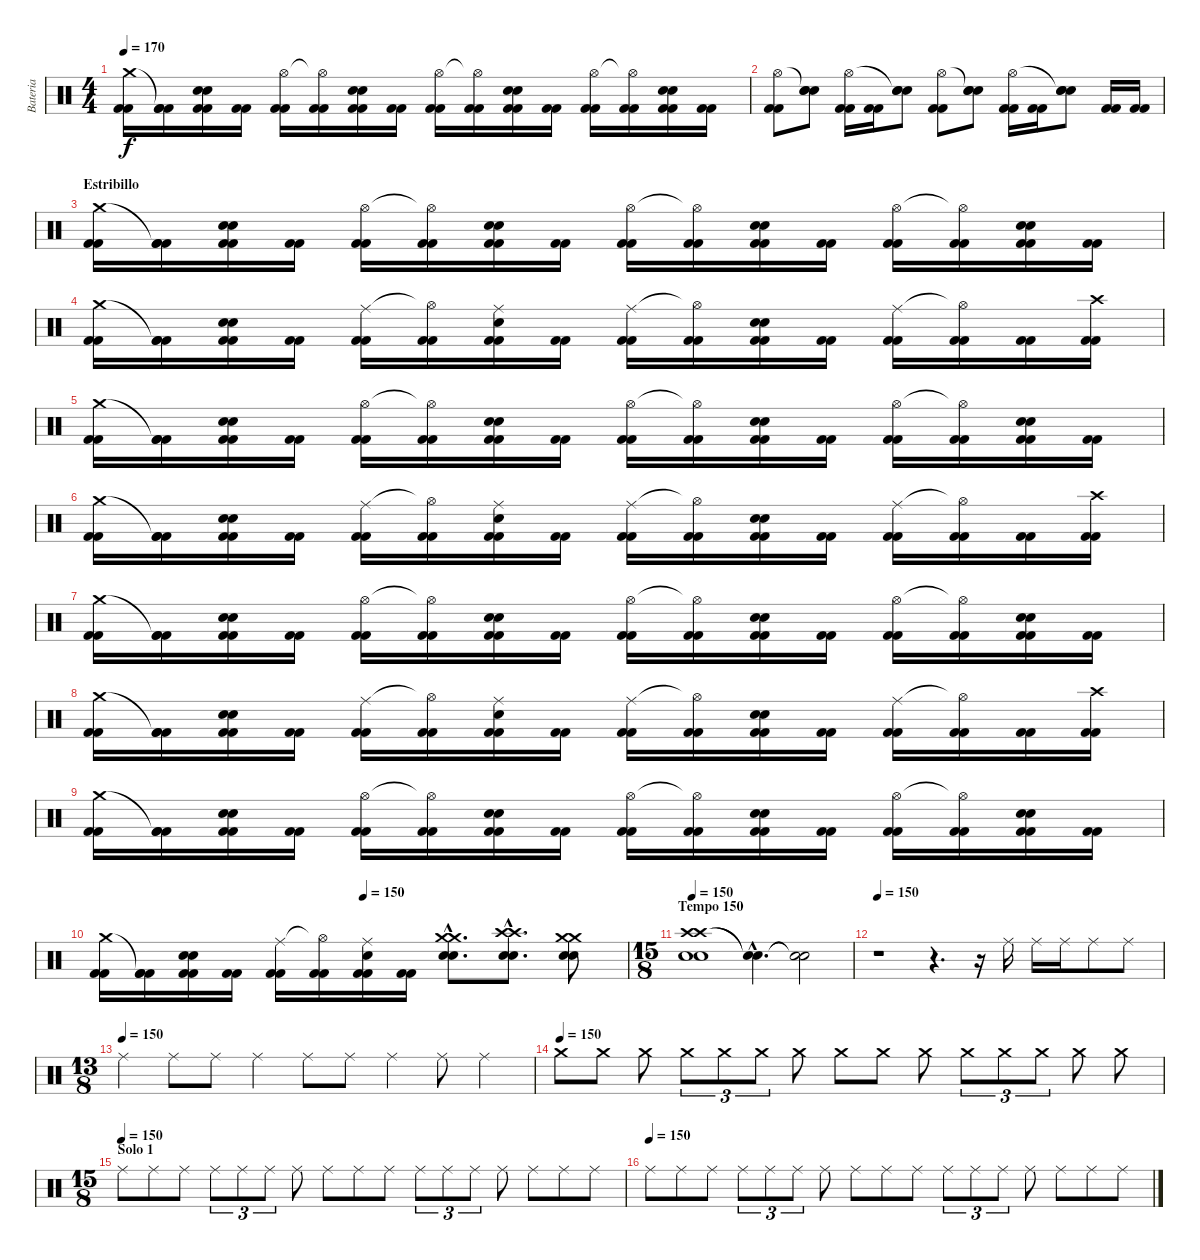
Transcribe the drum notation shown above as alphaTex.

\track ("Bateria" "Bateria") {instrument percussion}
\staff {score}
\articulation defaults
\ts (4 4)
\tempo 170
\clef neutral
\ks c
("Kick (hit) 2" "Kick (hit) 2" "Crash medium (hit)").16{dy f} ("Kick (hit) 2" "Kick (hit) 2" "Kick (hit) 2"{t}).16 ("Kick (hit) 2" "Kick (hit) 2" "Electric Snare (hit)" "Electric Snare (hit)").16 ("Kick (hit) 2" "Kick (hit) 2").16 ("Kick (hit) 2" "Kick (hit) 2" "Hi-Hat (open)").16 ("Kick (hit) 2" "Kick (hit) 2" "Hi-Hat (open)"{t}).16 ("Kick (hit) 2" "Kick (hit) 2" "Electric Snare (hit)" "Electric Snare (hit)").16 ("Kick (hit) 2" "Kick (hit) 2").16 ("Kick (hit) 2" "Kick (hit) 2" "Hi-Hat (open)").16 ("Kick (hit) 2" "Kick (hit) 2" "Hi-Hat (open)"{t}).16 ("Kick (hit) 2" "Kick (hit) 2" "Electric Snare (hit)" "Electric Snare (hit)").16 ("Kick (hit) 2" "Kick (hit) 2").16 ("Kick (hit) 2" "Kick (hit) 2" "Hi-Hat (open)").16 ("Kick (hit) 2" "Kick (hit) 2" "Hi-Hat (open)"{t}).16 ("Kick (hit) 2" "Kick (hit) 2" "Electric Snare (hit)" "Electric Snare (hit)").16 ("Kick (hit) 2" "Kick (hit) 2").16 |
("Kick (hit) 2" "Kick (hit) 2" "Hi-Hat (open)").8 ("Electric Snare (hit)" "Electric Snare (hit)" "Snare (hit)"{t}).8 ("Kick (hit) 2" "Kick (hit) 2" "Hi-Hat (open)").16 ("Kick (hit) 2" "Kick (hit) 2").16 ("Electric Snare (hit)" "Electric Snare (hit)" "Snare (hit)"{t}).8 ("Kick (hit) 2" "Kick (hit) 2" "Hi-Hat (open)").8 ("Electric Snare (hit)" "Electric Snare (hit)" "Snare (hit)"{t}).8 ("Kick (hit) 2" "Kick (hit) 2" "Hi-Hat (open)").16 ("Kick (hit) 2" "Kick (hit) 2").16 ("Electric Snare (hit)" "Electric Snare (hit)" "Snare (hit)"{t}).8 ("Kick (hit) 2" "Kick (hit) 2").16 ("Kick (hit) 2" "Kick (hit) 2").16 |
\section ("" "Estribillo")
("Kick (hit) 2" "Kick (hit) 2" "Crash medium (hit)").16 ("Kick (hit) 2" "Kick (hit) 2" "Kick (hit) 2"{t}).16 ("Kick (hit) 2" "Kick (hit) 2" "Electric Snare (hit)" "Electric Snare (hit)").16 ("Kick (hit) 2" "Kick (hit) 2").16 ("Kick (hit) 2" "Kick (hit) 2" "Hi-Hat (open)").16 ("Kick (hit) 2" "Kick (hit) 2" "Hi-Hat (open)"{t}).16 ("Kick (hit) 2" "Kick (hit) 2" "Electric Snare (hit)" "Electric Snare (hit)").16 ("Kick (hit) 2" "Kick (hit) 2").16 ("Kick (hit) 2" "Kick (hit) 2" "Hi-Hat (open)").16 ("Kick (hit) 2" "Kick (hit) 2" "Hi-Hat (open)"{t}).16 ("Kick (hit) 2" "Kick (hit) 2" "Electric Snare (hit)" "Electric Snare (hit)").16 ("Kick (hit) 2" "Kick (hit) 2").16 ("Kick (hit) 2" "Kick (hit) 2" "Hi-Hat (open)").16 ("Kick (hit) 2" "Kick (hit) 2" "Hi-Hat (open)"{t}).16 ("Kick (hit) 2" "Kick (hit) 2" "Electric Snare (hit)" "Electric Snare (hit)").16 ("Kick (hit) 2" "Kick (hit) 2").16 |
("Kick (hit) 2" "Kick (hit) 2" "Crash medium (hit)").16 ("Kick (hit) 2" "Kick (hit) 2" "Kick (hit) 2"{t}).16 ("Kick (hit) 2" "Kick (hit) 2" "Electric Snare (hit)" "Electric Snare (hit)").16 ("Kick (hit) 2" "Kick (hit) 2").16 ("Kick (hit) 2" "Kick (hit) 2" "Ride (middle)").16 ("Kick (hit) 2" "Kick (hit) 2" "Hi-Hat (open)"{t}).16 ("Kick (hit) 2" "Kick (hit) 2" "Electric Snare (hit)" "Ride (middle)").16 ("Kick (hit) 2" "Kick (hit) 2").16 ("Kick (hit) 2" "Kick (hit) 2" "Ride (middle)").16 ("Kick (hit) 2" "Kick (hit) 2" "Hi-Hat (open)"{t}).16 ("Kick (hit) 2" "Kick (hit) 2" "Electric Snare (hit)" "Electric Snare (hit)").16 ("Kick (hit) 2" "Kick (hit) 2").16 ("Kick (hit) 2" "Kick (hit) 2" "Ride (middle)").16 ("Kick (hit) 2" "Kick (hit) 2" "Hi-Hat (open)"{t}).16 ("Kick (hit) 2" "Kick (hit) 2").16 ("Kick (hit) 2" "Kick (hit) 2" "Crash high (hit)").16 |
("Kick (hit) 2" "Kick (hit) 2" "Crash medium (hit)").16 ("Kick (hit) 2" "Kick (hit) 2" "Kick (hit) 2"{t}).16 ("Kick (hit) 2" "Kick (hit) 2" "Electric Snare (hit)" "Electric Snare (hit)").16 ("Kick (hit) 2" "Kick (hit) 2").16 ("Kick (hit) 2" "Kick (hit) 2" "Hi-Hat (open)").16 ("Kick (hit) 2" "Kick (hit) 2" "Hi-Hat (open)"{t}).16 ("Kick (hit) 2" "Kick (hit) 2" "Electric Snare (hit)" "Electric Snare (hit)").16 ("Kick (hit) 2" "Kick (hit) 2").16 ("Kick (hit) 2" "Kick (hit) 2" "Hi-Hat (open)").16 ("Kick (hit) 2" "Kick (hit) 2" "Hi-Hat (open)"{t}).16 ("Kick (hit) 2" "Kick (hit) 2" "Electric Snare (hit)" "Electric Snare (hit)").16 ("Kick (hit) 2" "Kick (hit) 2").16 ("Kick (hit) 2" "Kick (hit) 2" "Hi-Hat (open)").16 ("Kick (hit) 2" "Kick (hit) 2" "Hi-Hat (open)"{t}).16 ("Kick (hit) 2" "Kick (hit) 2" "Electric Snare (hit)" "Electric Snare (hit)").16 ("Kick (hit) 2" "Kick (hit) 2").16 |
("Kick (hit) 2" "Kick (hit) 2" "Crash medium (hit)").16 ("Kick (hit) 2" "Kick (hit) 2" "Kick (hit) 2"{t}).16 ("Kick (hit) 2" "Kick (hit) 2" "Electric Snare (hit)" "Electric Snare (hit)").16 ("Kick (hit) 2" "Kick (hit) 2").16 ("Kick (hit) 2" "Kick (hit) 2" "Ride (middle)").16 ("Kick (hit) 2" "Kick (hit) 2" "Hi-Hat (open)"{t}).16 ("Kick (hit) 2" "Kick (hit) 2" "Electric Snare (hit)" "Ride (middle)").16 ("Kick (hit) 2" "Kick (hit) 2").16 ("Kick (hit) 2" "Kick (hit) 2" "Ride (middle)").16 ("Kick (hit) 2" "Kick (hit) 2" "Hi-Hat (open)"{t}).16 ("Kick (hit) 2" "Kick (hit) 2" "Electric Snare (hit)" "Electric Snare (hit)").16 ("Kick (hit) 2" "Kick (hit) 2").16 ("Kick (hit) 2" "Kick (hit) 2" "Ride (middle)").16 ("Kick (hit) 2" "Kick (hit) 2" "Hi-Hat (open)"{t}).16 ("Kick (hit) 2" "Kick (hit) 2").16 ("Kick (hit) 2" "Kick (hit) 2" "Crash high (hit)").16 |
("Kick (hit) 2" "Kick (hit) 2" "Crash medium (hit)").16 ("Kick (hit) 2" "Kick (hit) 2" "Kick (hit) 2"{t}).16 ("Kick (hit) 2" "Kick (hit) 2" "Electric Snare (hit)" "Electric Snare (hit)").16 ("Kick (hit) 2" "Kick (hit) 2").16 ("Kick (hit) 2" "Kick (hit) 2" "Hi-Hat (open)").16 ("Kick (hit) 2" "Kick (hit) 2" "Hi-Hat (open)"{t}).16 ("Kick (hit) 2" "Kick (hit) 2" "Electric Snare (hit)" "Electric Snare (hit)").16 ("Kick (hit) 2" "Kick (hit) 2").16 ("Kick (hit) 2" "Kick (hit) 2" "Hi-Hat (open)").16 ("Kick (hit) 2" "Kick (hit) 2" "Hi-Hat (open)"{t}).16 ("Kick (hit) 2" "Kick (hit) 2" "Electric Snare (hit)" "Electric Snare (hit)").16 ("Kick (hit) 2" "Kick (hit) 2").16 ("Kick (hit) 2" "Kick (hit) 2" "Hi-Hat (open)").16 ("Kick (hit) 2" "Kick (hit) 2" "Hi-Hat (open)"{t}).16 ("Kick (hit) 2" "Kick (hit) 2" "Electric Snare (hit)" "Electric Snare (hit)").16 ("Kick (hit) 2" "Kick (hit) 2").16 |
("Kick (hit) 2" "Kick (hit) 2" "Crash medium (hit)").16 ("Kick (hit) 2" "Kick (hit) 2" "Kick (hit) 2"{t}).16 ("Kick (hit) 2" "Kick (hit) 2" "Electric Snare (hit)" "Electric Snare (hit)").16 ("Kick (hit) 2" "Kick (hit) 2").16 ("Kick (hit) 2" "Kick (hit) 2" "Ride (middle)").16 ("Kick (hit) 2" "Kick (hit) 2" "Hi-Hat (open)"{t}).16 ("Kick (hit) 2" "Kick (hit) 2" "Electric Snare (hit)" "Ride (middle)").16 ("Kick (hit) 2" "Kick (hit) 2").16 ("Kick (hit) 2" "Kick (hit) 2" "Ride (middle)").16 ("Kick (hit) 2" "Kick (hit) 2" "Hi-Hat (open)"{t}).16 ("Kick (hit) 2" "Kick (hit) 2" "Electric Snare (hit)" "Electric Snare (hit)").16 ("Kick (hit) 2" "Kick (hit) 2").16 ("Kick (hit) 2" "Kick (hit) 2" "Ride (middle)").16 ("Kick (hit) 2" "Kick (hit) 2" "Hi-Hat (open)"{t}).16 ("Kick (hit) 2" "Kick (hit) 2").16 ("Kick (hit) 2" "Kick (hit) 2" "Crash high (hit)").16 |
("Kick (hit) 2" "Kick (hit) 2" "Crash medium (hit)").16 ("Kick (hit) 2" "Kick (hit) 2" "Kick (hit) 2"{t}).16 ("Kick (hit) 2" "Kick (hit) 2" "Electric Snare (hit)" "Electric Snare (hit)").16 ("Kick (hit) 2" "Kick (hit) 2").16 ("Kick (hit) 2" "Kick (hit) 2" "Hi-Hat (open)").16 ("Kick (hit) 2" "Kick (hit) 2" "Hi-Hat (open)"{t}).16 ("Kick (hit) 2" "Kick (hit) 2" "Electric Snare (hit)" "Electric Snare (hit)").16 ("Kick (hit) 2" "Kick (hit) 2").16 ("Kick (hit) 2" "Kick (hit) 2" "Hi-Hat (open)").16 ("Kick (hit) 2" "Kick (hit) 2" "Hi-Hat (open)"{t}).16 ("Kick (hit) 2" "Kick (hit) 2" "Electric Snare (hit)" "Electric Snare (hit)").16 ("Kick (hit) 2" "Kick (hit) 2").16 ("Kick (hit) 2" "Kick (hit) 2" "Hi-Hat (open)").16 ("Kick (hit) 2" "Kick (hit) 2" "Hi-Hat (open)"{t}).16 ("Kick (hit) 2" "Kick (hit) 2" "Electric Snare (hit)" "Electric Snare (hit)").16 ("Kick (hit) 2" "Kick (hit) 2").16 |
\tempo (150 0.5)
("Kick (hit) 2" "Kick (hit) 2" "Crash medium (hit)").16 ("Kick (hit) 2" "Kick (hit) 2" "Kick (hit) 2"{t}).16 ("Kick (hit) 2" "Kick (hit) 2" "Electric Snare (hit)" "Electric Snare (hit)").16 ("Kick (hit) 2" "Kick (hit) 2").16 ("Kick (hit) 2" "Kick (hit) 2" "Ride (middle)").16 ("Kick (hit) 2" "Kick (hit) 2" "Hi-Hat (open)"{t}).16 ("Kick (hit) 2" "Kick (hit) 2" "Electric Snare (hit)" "Ride (middle)").16 ("Kick (hit) 2" "Kick (hit) 2").16 ("Crash medium (hit)"{hac} "Crash medium (hit)"{hac} "Snare (hit) 2"{hac} "Snare (hit) 2"{hac}).8{d} ("Crash high (hit)"{hac} "Crash high (hit)"{hac} "Snare (hit) 2"{hac} "Snare (hit) 2"{hac}).8{d} ("Crash medium (hit)" "Crash medium (hit)" "Snare (hit) 2" "Snare (hit) 2").8 |
\ts (15 8)
\section ("" "Tempo 150")
\tempo 150
("Crash high (hit)" "Crash high (hit)" "Snare (hit) 2" "Snare (hit) 2").1 ("Snare (hit)"{hac t} "Snare (hit)"{hac t}).4{d} ("Snare (hit)"{t} "Snare (hit)"{t}).2 |
\tempo 150
r.1 r.4{d} r.16 "Ride (middle)".16 "Ride (middle)".16 "Ride (middle)".16 "Ride (middle)".8 "Ride (middle)".8 |
\ts (13 8)
\tempo (150)
"Ride (middle)".4 "Ride (middle)".8 "Ride (middle)".8 "Ride (middle)".4 "Ride (middle)".8 "Ride (middle)".8 "Ride (middle)".4 "Ride (middle)".8 "Ride (middle)".4 |
\tempo (150)
"Crash medium (hit)".8{volume 0} "Crash medium (hit)".8{volume 15} "Crash medium (hit)".8 "Crash medium (hit)".8{tu (3 2)} "Crash medium (hit)".8{tu (3 2)} "Crash medium (hit)".8{tu (3 2)} "Crash medium (hit)".8 "Crash medium (hit)".8 "Crash medium (hit)".8 "Crash medium (hit)".8 "Crash medium (hit)".8{tu (3 2)} "Crash medium (hit)".8{tu (3 2)} "Crash medium (hit)".8{tu (3 2)} "Crash medium (hit)".8 "Crash medium (hit)".8 |
\ts (15 8)
\section ("" "Solo 1")
\tempo (150)
"Ride (middle)".8 "Ride (middle)".8 "Ride (middle)".8 "Ride (middle)".8{tu (3 2)} "Ride (middle)".8{tu (3 2)} "Ride (middle)".8{tu (3 2)} "Ride (middle)".8 "Ride (middle)".8 "Ride (middle)".8 "Ride (middle)".8 "Ride (middle)".8{tu (3 2)} "Ride (middle)".8{tu (3 2)} "Ride (middle)".8{tu (3 2)} "Ride (middle)".8 "Ride (middle)".8 "Ride (middle)".8 "Ride (middle)".8 |
\tempo (150)
"Ride (middle)".8 "Ride (middle)".8 "Ride (middle)".8 "Ride (middle)".8{tu (3 2)} "Ride (middle)".8{tu (3 2)} "Ride (middle)".8{tu (3 2)} "Ride (middle)".8 "Ride (middle)".8 "Ride (middle)".8 "Ride (middle)".8 "Ride (middle)".8{tu (3 2)} "Ride (middle)".8{tu (3 2)} "Ride (middle)".8{tu (3 2)} "Ride (middle)".8 "Ride (middle)".8 "Ride (middle)".8 "Ride (middle)".8
